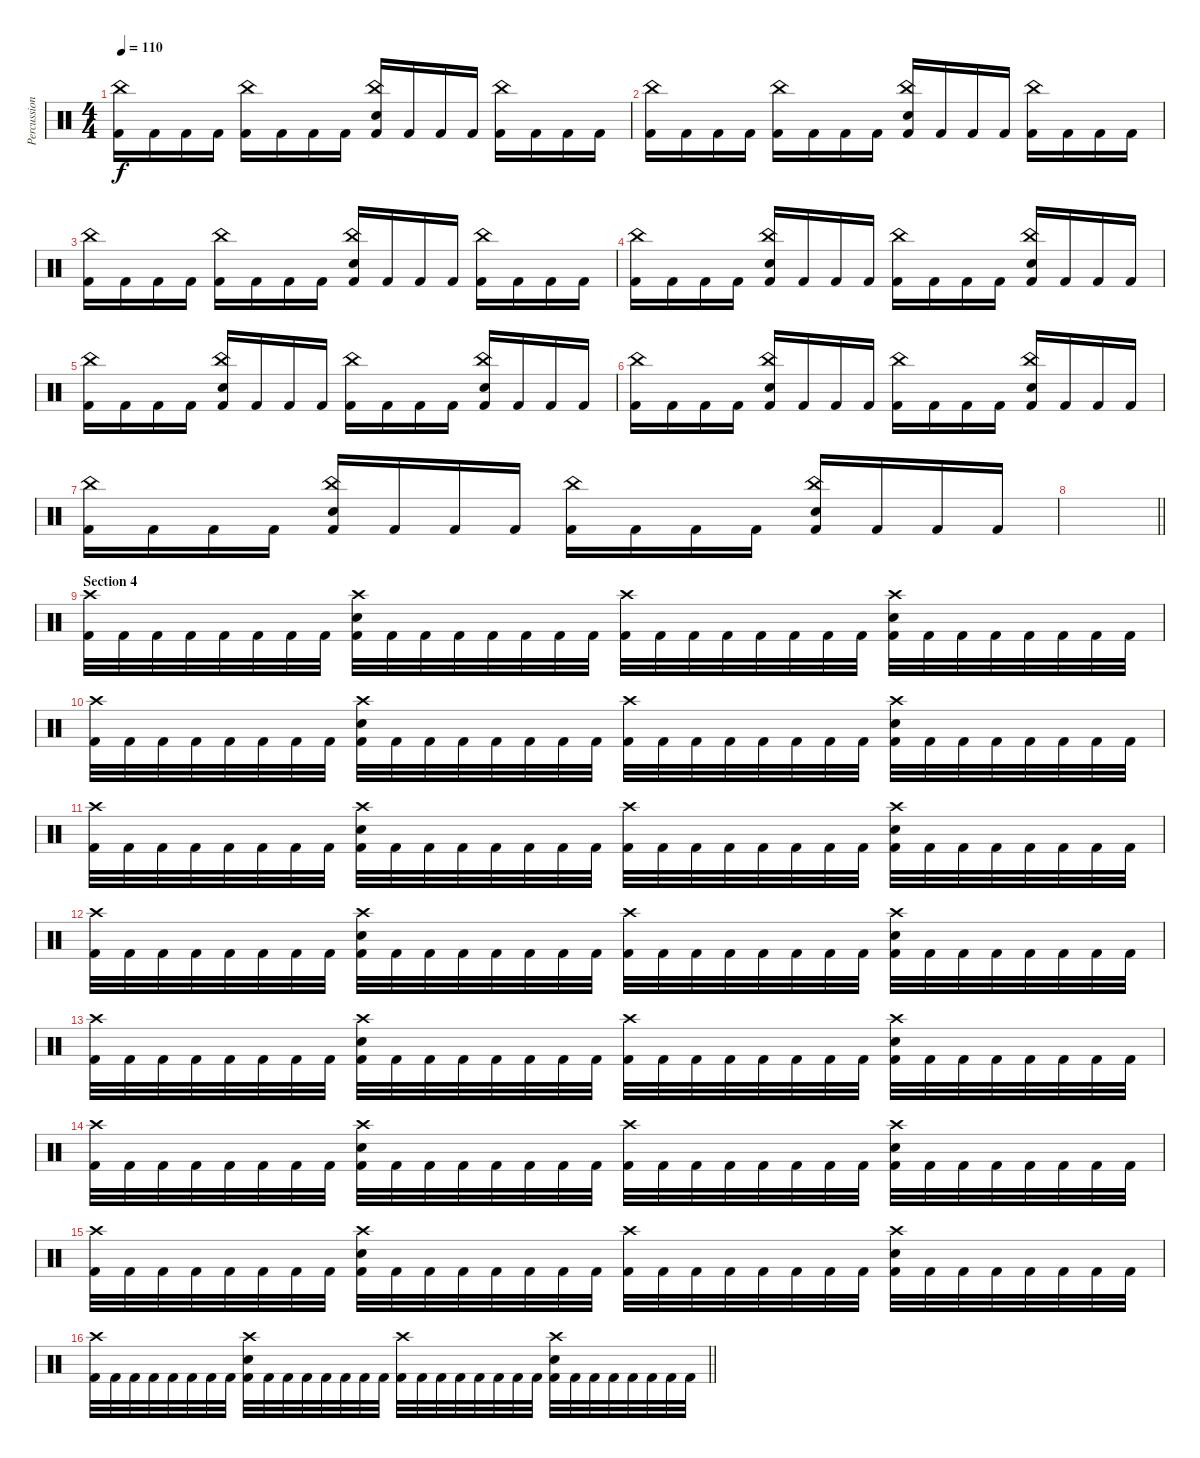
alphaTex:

\track ("Percussions" "Percussion") {instrument percussion}
\staff {score}
\articulation defaults
\ts (4 4)
\tempo 110
\clef neutral
\ks c
("Kick (hit) 2" "China (hit)").16{dy f} "Kick (hit) 2".16 "Kick (hit) 2".16 "Kick (hit) 2".16 ("Kick (hit) 2" "China (hit)").16 "Kick (hit) 2".16 "Kick (hit) 2".16 "Kick (hit) 2".16 ("Kick (hit) 2" "Electric Snare (hit)" "China (hit)").16 "Kick (hit) 2".16 "Kick (hit) 2".16 "Kick (hit) 2".16 ("Kick (hit) 2" "China (hit)").16 "Kick (hit) 2".16 "Kick (hit) 2".16 "Kick (hit) 2".16 |
("Kick (hit) 2" "China (hit)").16 "Kick (hit) 2".16 "Kick (hit) 2".16 "Kick (hit) 2".16 ("Kick (hit) 2" "China (hit)").16 "Kick (hit) 2".16 "Kick (hit) 2".16 "Kick (hit) 2".16 ("Kick (hit) 2" "Electric Snare (hit)" "China (hit)").16 "Kick (hit) 2".16 "Kick (hit) 2".16 "Kick (hit) 2".16 ("Kick (hit) 2" "China (hit)").16 "Kick (hit) 2".16 "Kick (hit) 2".16 "Kick (hit) 2".16 |
("Kick (hit) 2" "China (hit)").16 "Kick (hit) 2".16 "Kick (hit) 2".16 "Kick (hit) 2".16 ("Kick (hit) 2" "China (hit)").16 "Kick (hit) 2".16 "Kick (hit) 2".16 "Kick (hit) 2".16 ("Kick (hit) 2" "Electric Snare (hit)" "China (hit)").16 "Kick (hit) 2".16 "Kick (hit) 2".16 "Kick (hit) 2".16 ("Kick (hit) 2" "China (hit)").16 "Kick (hit) 2".16 "Kick (hit) 2".16 "Kick (hit) 2".16 |
("Kick (hit) 2" "China (hit)").16 "Kick (hit) 2".16 "Kick (hit) 2".16 "Kick (hit) 2".16 ("Kick (hit) 2" "Electric Snare (hit)" "China (hit)").16 "Kick (hit) 2".16 "Kick (hit) 2".16 "Kick (hit) 2".16 ("Kick (hit) 2" "China (hit)").16 "Kick (hit) 2".16 "Kick (hit) 2".16 "Kick (hit) 2".16 ("Kick (hit) 2" "Electric Snare (hit)" "China (hit)").16 "Kick (hit) 2".16 "Kick (hit) 2".16 "Kick (hit) 2".16 |
("Kick (hit) 2" "China (hit)").16 "Kick (hit) 2".16 "Kick (hit) 2".16 "Kick (hit) 2".16 ("Kick (hit) 2" "Electric Snare (hit)" "China (hit)").16 "Kick (hit) 2".16 "Kick (hit) 2".16 "Kick (hit) 2".16 ("Kick (hit) 2" "China (hit)").16 "Kick (hit) 2".16 "Kick (hit) 2".16 "Kick (hit) 2".16 ("Kick (hit) 2" "Electric Snare (hit)" "China (hit)").16 "Kick (hit) 2".16 "Kick (hit) 2".16 "Kick (hit) 2".16 |
("Kick (hit) 2" "China (hit)").16 "Kick (hit) 2".16 "Kick (hit) 2".16 "Kick (hit) 2".16 ("Kick (hit) 2" "Electric Snare (hit)" "China (hit)").16 "Kick (hit) 2".16 "Kick (hit) 2".16 "Kick (hit) 2".16 ("Kick (hit) 2" "China (hit)").16 "Kick (hit) 2".16 "Kick (hit) 2".16 "Kick (hit) 2".16 ("Kick (hit) 2" "Electric Snare (hit)" "China (hit)").16 "Kick (hit) 2".16 "Kick (hit) 2".16 "Kick (hit) 2".16 |
("Kick (hit) 2" "China (hit)").16 "Kick (hit) 2".16 "Kick (hit) 2".16 "Kick (hit) 2".16 ("Kick (hit) 2" "Electric Snare (hit)" "China (hit)").16 "Kick (hit) 2".16 "Kick (hit) 2".16 "Kick (hit) 2".16 ("Kick (hit) 2" "China (hit)").16 "Kick (hit) 2".16 "Kick (hit) 2".16 "Kick (hit) 2".16 ("Kick (hit) 2" "Electric Snare (hit)" "China (hit)").16 "Kick (hit) 2".16 "Kick (hit) 2".16 "Kick (hit) 2".16 |
\barLineRight lightlight
|
\section ("" "Section 4")
("Kick (hit) 2" "Crash high (hit)").32 "Kick (hit) 2".32 "Kick (hit) 2".32 "Kick (hit) 2".32 "Kick (hit) 2".32 "Kick (hit) 2".32 "Kick (hit) 2".32 "Kick (hit) 2".32 ("Kick (hit) 2" "Electric Snare (hit)" "Crash high (hit)").32 "Kick (hit) 2".32 "Kick (hit) 2".32 "Kick (hit) 2".32 "Kick (hit) 2".32 "Kick (hit) 2".32 "Kick (hit) 2".32 "Kick (hit) 2".32 ("Kick (hit) 2" "Crash high (hit)").32 "Kick (hit) 2".32 "Kick (hit) 2".32 "Kick (hit) 2".32 "Kick (hit) 2".32 "Kick (hit) 2".32 "Kick (hit) 2".32 "Kick (hit) 2".32 ("Kick (hit) 2" "Electric Snare (hit)" "Crash high (hit)").32 "Kick (hit) 2".32 "Kick (hit) 2".32 "Kick (hit) 2".32 "Kick (hit) 2".32 "Kick (hit) 2".32 "Kick (hit) 2".32 "Kick (hit) 2".32 |
("Kick (hit) 2" "Crash high (hit)").32 "Kick (hit) 2".32 "Kick (hit) 2".32 "Kick (hit) 2".32 "Kick (hit) 2".32 "Kick (hit) 2".32 "Kick (hit) 2".32 "Kick (hit) 2".32 ("Kick (hit) 2" "Electric Snare (hit)" "Crash high (hit)").32 "Kick (hit) 2".32 "Kick (hit) 2".32 "Kick (hit) 2".32 "Kick (hit) 2".32 "Kick (hit) 2".32 "Kick (hit) 2".32 "Kick (hit) 2".32 ("Kick (hit) 2" "Crash high (hit)").32 "Kick (hit) 2".32 "Kick (hit) 2".32 "Kick (hit) 2".32 "Kick (hit) 2".32 "Kick (hit) 2".32 "Kick (hit) 2".32 "Kick (hit) 2".32 ("Kick (hit) 2" "Electric Snare (hit)" "Crash high (hit)").32 "Kick (hit) 2".32 "Kick (hit) 2".32 "Kick (hit) 2".32 "Kick (hit) 2".32 "Kick (hit) 2".32 "Kick (hit) 2".32 "Kick (hit) 2".32 |
("Kick (hit) 2" "Crash high (hit)").32 "Kick (hit) 2".32 "Kick (hit) 2".32 "Kick (hit) 2".32 "Kick (hit) 2".32 "Kick (hit) 2".32 "Kick (hit) 2".32 "Kick (hit) 2".32 ("Kick (hit) 2" "Electric Snare (hit)" "Crash high (hit)").32 "Kick (hit) 2".32 "Kick (hit) 2".32 "Kick (hit) 2".32 "Kick (hit) 2".32 "Kick (hit) 2".32 "Kick (hit) 2".32 "Kick (hit) 2".32 ("Kick (hit) 2" "Crash high (hit)").32 "Kick (hit) 2".32 "Kick (hit) 2".32 "Kick (hit) 2".32 "Kick (hit) 2".32 "Kick (hit) 2".32 "Kick (hit) 2".32 "Kick (hit) 2".32 ("Kick (hit) 2" "Electric Snare (hit)" "Crash high (hit)").32 "Kick (hit) 2".32 "Kick (hit) 2".32 "Kick (hit) 2".32 "Kick (hit) 2".32 "Kick (hit) 2".32 "Kick (hit) 2".32 "Kick (hit) 2".32 |
("Kick (hit) 2" "Crash high (hit)").32 "Kick (hit) 2".32 "Kick (hit) 2".32 "Kick (hit) 2".32 "Kick (hit) 2".32 "Kick (hit) 2".32 "Kick (hit) 2".32 "Kick (hit) 2".32 ("Kick (hit) 2" "Electric Snare (hit)" "Crash high (hit)").32 "Kick (hit) 2".32 "Kick (hit) 2".32 "Kick (hit) 2".32 "Kick (hit) 2".32 "Kick (hit) 2".32 "Kick (hit) 2".32 "Kick (hit) 2".32 ("Kick (hit) 2" "Crash high (hit)").32 "Kick (hit) 2".32 "Kick (hit) 2".32 "Kick (hit) 2".32 "Kick (hit) 2".32 "Kick (hit) 2".32 "Kick (hit) 2".32 "Kick (hit) 2".32 ("Kick (hit) 2" "Electric Snare (hit)" "Crash high (hit)").32 "Kick (hit) 2".32 "Kick (hit) 2".32 "Kick (hit) 2".32 "Kick (hit) 2".32 "Kick (hit) 2".32 "Kick (hit) 2".32 "Kick (hit) 2".32 |
("Kick (hit) 2" "Crash high (hit)").32 "Kick (hit) 2".32 "Kick (hit) 2".32 "Kick (hit) 2".32 "Kick (hit) 2".32 "Kick (hit) 2".32 "Kick (hit) 2".32 "Kick (hit) 2".32 ("Kick (hit) 2" "Electric Snare (hit)" "Crash high (hit)").32 "Kick (hit) 2".32 "Kick (hit) 2".32 "Kick (hit) 2".32 "Kick (hit) 2".32 "Kick (hit) 2".32 "Kick (hit) 2".32 "Kick (hit) 2".32 ("Kick (hit) 2" "Crash high (hit)").32 "Kick (hit) 2".32 "Kick (hit) 2".32 "Kick (hit) 2".32 "Kick (hit) 2".32 "Kick (hit) 2".32 "Kick (hit) 2".32 "Kick (hit) 2".32 ("Kick (hit) 2" "Electric Snare (hit)" "Crash high (hit)").32 "Kick (hit) 2".32 "Kick (hit) 2".32 "Kick (hit) 2".32 "Kick (hit) 2".32 "Kick (hit) 2".32 "Kick (hit) 2".32 "Kick (hit) 2".32 |
("Kick (hit) 2" "Crash high (hit)").32 "Kick (hit) 2".32 "Kick (hit) 2".32 "Kick (hit) 2".32 "Kick (hit) 2".32 "Kick (hit) 2".32 "Kick (hit) 2".32 "Kick (hit) 2".32 ("Kick (hit) 2" "Electric Snare (hit)" "Crash high (hit)").32 "Kick (hit) 2".32 "Kick (hit) 2".32 "Kick (hit) 2".32 "Kick (hit) 2".32 "Kick (hit) 2".32 "Kick (hit) 2".32 "Kick (hit) 2".32 ("Kick (hit) 2" "Crash high (hit)").32 "Kick (hit) 2".32 "Kick (hit) 2".32 "Kick (hit) 2".32 "Kick (hit) 2".32 "Kick (hit) 2".32 "Kick (hit) 2".32 "Kick (hit) 2".32 ("Kick (hit) 2" "Electric Snare (hit)" "Crash high (hit)").32 "Kick (hit) 2".32 "Kick (hit) 2".32 "Kick (hit) 2".32 "Kick (hit) 2".32 "Kick (hit) 2".32 "Kick (hit) 2".32 "Kick (hit) 2".32 |
("Kick (hit) 2" "Crash high (hit)").32 "Kick (hit) 2".32 "Kick (hit) 2".32 "Kick (hit) 2".32 "Kick (hit) 2".32 "Kick (hit) 2".32 "Kick (hit) 2".32 "Kick (hit) 2".32 ("Kick (hit) 2" "Electric Snare (hit)" "Crash high (hit)").32 "Kick (hit) 2".32 "Kick (hit) 2".32 "Kick (hit) 2".32 "Kick (hit) 2".32 "Kick (hit) 2".32 "Kick (hit) 2".32 "Kick (hit) 2".32 ("Kick (hit) 2" "Crash high (hit)").32 "Kick (hit) 2".32 "Kick (hit) 2".32 "Kick (hit) 2".32 "Kick (hit) 2".32 "Kick (hit) 2".32 "Kick (hit) 2".32 "Kick (hit) 2".32 ("Kick (hit) 2" "Electric Snare (hit)" "Crash high (hit)").32 "Kick (hit) 2".32 "Kick (hit) 2".32 "Kick (hit) 2".32 "Kick (hit) 2".32 "Kick (hit) 2".32 "Kick (hit) 2".32 "Kick (hit) 2".32 |
\barLineRight lightlight
("Kick (hit) 2" "Crash high (hit)").32 "Kick (hit) 2".32 "Kick (hit) 2".32 "Kick (hit) 2".32 "Kick (hit) 2".32 "Kick (hit) 2".32 "Kick (hit) 2".32 "Kick (hit) 2".32 ("Kick (hit) 2" "Electric Snare (hit)" "Crash high (hit)").32 "Kick (hit) 2".32 "Kick (hit) 2".32 "Kick (hit) 2".32 "Kick (hit) 2".32 "Kick (hit) 2".32 "Kick (hit) 2".32 "Kick (hit) 2".32 ("Kick (hit) 2" "Crash high (hit)").32 "Kick (hit) 2".32 "Kick (hit) 2".32 "Kick (hit) 2".32 "Kick (hit) 2".32 "Kick (hit) 2".32 "Kick (hit) 2".32 "Kick (hit) 2".32 ("Kick (hit) 2" "Electric Snare (hit)" "Crash high (hit)").32 "Kick (hit) 2".32 "Kick (hit) 2".32 "Kick (hit) 2".32 "Kick (hit) 2".32 "Kick (hit) 2".32 "Kick (hit) 2".32 "Kick (hit) 2".32
